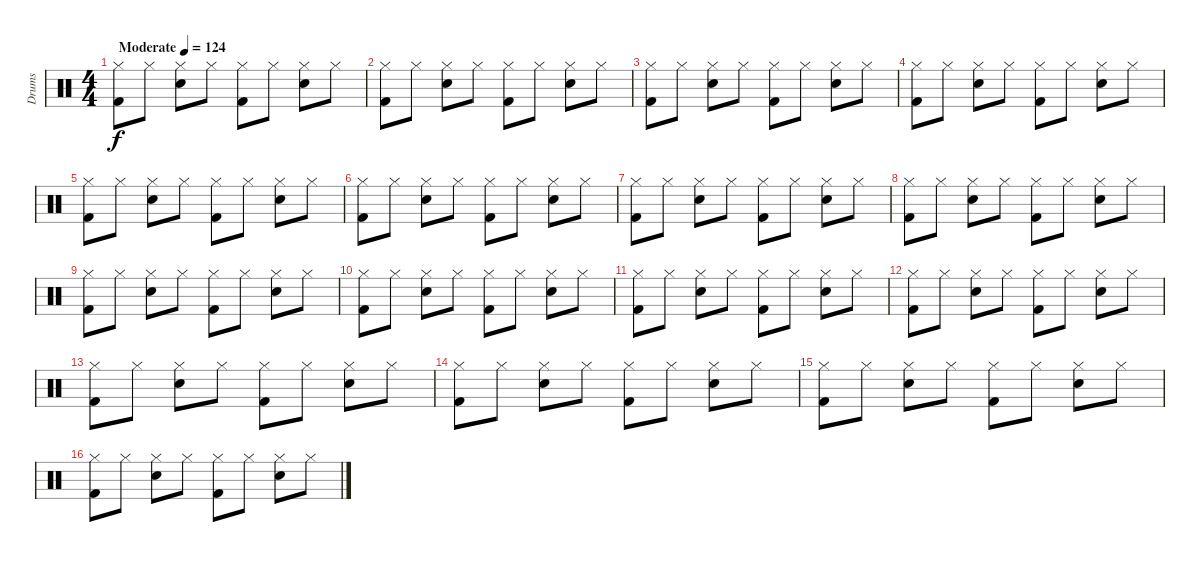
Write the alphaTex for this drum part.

\track ("Drums" "Drums") {instrument percussion}
\staff {score}
\articulation defaults
\ts (4 4)
\tempo (124 "Moderate")
\clef neutral
\ks c
("Kick (hit) 2" "Hi-Hat (closed)").8{dy f} "Hi-Hat (closed)".8 ("Electric Snare (hit)" "Hi-Hat (closed)").8 "Hi-Hat (closed)".8 ("Kick (hit) 2" "Hi-Hat (closed)").8 "Hi-Hat (closed)".8 ("Electric Snare (hit)" "Hi-Hat (closed)").8 "Hi-Hat (closed)".8 |
("Kick (hit) 2" "Hi-Hat (closed)").8 "Hi-Hat (closed)".8 ("Electric Snare (hit)" "Hi-Hat (closed)").8 "Hi-Hat (closed)".8 ("Kick (hit) 2" "Hi-Hat (closed)").8 "Hi-Hat (closed)".8 ("Electric Snare (hit)" "Hi-Hat (closed)").8 "Hi-Hat (closed)".8 |
("Kick (hit) 2" "Hi-Hat (closed)").8 "Hi-Hat (closed)".8 ("Electric Snare (hit)" "Hi-Hat (closed)").8 "Hi-Hat (closed)".8 ("Kick (hit) 2" "Hi-Hat (closed)").8 "Hi-Hat (closed)".8 ("Electric Snare (hit)" "Hi-Hat (closed)").8 "Hi-Hat (closed)".8 |
("Kick (hit) 2" "Hi-Hat (closed)").8 "Hi-Hat (closed)".8 ("Electric Snare (hit)" "Hi-Hat (closed)").8 "Hi-Hat (closed)".8 ("Kick (hit) 2" "Hi-Hat (closed)").8 "Hi-Hat (closed)".8 ("Electric Snare (hit)" "Hi-Hat (closed)").8 "Hi-Hat (closed)".8 |
("Kick (hit) 2" "Hi-Hat (closed)").8 "Hi-Hat (closed)".8 ("Electric Snare (hit)" "Hi-Hat (closed)").8 "Hi-Hat (closed)".8 ("Kick (hit) 2" "Hi-Hat (closed)").8 "Hi-Hat (closed)".8 ("Electric Snare (hit)" "Hi-Hat (closed)").8 "Hi-Hat (closed)".8 |
("Kick (hit) 2" "Hi-Hat (closed)").8 "Hi-Hat (closed)".8 ("Electric Snare (hit)" "Hi-Hat (closed)").8 "Hi-Hat (closed)".8 ("Kick (hit) 2" "Hi-Hat (closed)").8 "Hi-Hat (closed)".8 ("Electric Snare (hit)" "Hi-Hat (closed)").8 "Hi-Hat (closed)".8 |
("Kick (hit) 2" "Hi-Hat (closed)").8 "Hi-Hat (closed)".8 ("Electric Snare (hit)" "Hi-Hat (closed)").8 "Hi-Hat (closed)".8 ("Kick (hit) 2" "Hi-Hat (closed)").8 "Hi-Hat (closed)".8 ("Electric Snare (hit)" "Hi-Hat (closed)").8 "Hi-Hat (closed)".8 |
("Kick (hit) 2" "Hi-Hat (closed)").8 "Hi-Hat (closed)".8 ("Electric Snare (hit)" "Hi-Hat (closed)").8 "Hi-Hat (closed)".8 ("Kick (hit) 2" "Hi-Hat (closed)").8 "Hi-Hat (closed)".8 ("Electric Snare (hit)" "Hi-Hat (closed)").8 "Hi-Hat (closed)".8 |
("Kick (hit) 2" "Hi-Hat (closed)").8 "Hi-Hat (closed)".8 ("Electric Snare (hit)" "Hi-Hat (closed)").8 "Hi-Hat (closed)".8 ("Kick (hit) 2" "Hi-Hat (closed)").8 "Hi-Hat (closed)".8 ("Electric Snare (hit)" "Hi-Hat (closed)").8 "Hi-Hat (closed)".8 |
("Kick (hit) 2" "Hi-Hat (closed)").8 "Hi-Hat (closed)".8 ("Electric Snare (hit)" "Hi-Hat (closed)").8 "Hi-Hat (closed)".8 ("Kick (hit) 2" "Hi-Hat (closed)").8 "Hi-Hat (closed)".8 ("Electric Snare (hit)" "Hi-Hat (closed)").8 "Hi-Hat (closed)".8 |
("Kick (hit) 2" "Hi-Hat (closed)").8 "Hi-Hat (closed)".8 ("Electric Snare (hit)" "Hi-Hat (closed)").8 "Hi-Hat (closed)".8 ("Kick (hit) 2" "Hi-Hat (closed)").8 "Hi-Hat (closed)".8 ("Electric Snare (hit)" "Hi-Hat (closed)").8 "Hi-Hat (closed)".8 |
("Kick (hit) 2" "Hi-Hat (closed)").8 "Hi-Hat (closed)".8 ("Electric Snare (hit)" "Hi-Hat (closed)").8 "Hi-Hat (closed)".8 ("Kick (hit) 2" "Hi-Hat (closed)").8 "Hi-Hat (closed)".8 ("Electric Snare (hit)" "Hi-Hat (closed)").8 "Hi-Hat (closed)".8 |
("Kick (hit) 2" "Hi-Hat (closed)").8 "Hi-Hat (closed)".8 ("Electric Snare (hit)" "Hi-Hat (closed)").8 "Hi-Hat (closed)".8 ("Kick (hit) 2" "Hi-Hat (closed)").8 "Hi-Hat (closed)".8 ("Electric Snare (hit)" "Hi-Hat (closed)").8 "Hi-Hat (closed)".8 |
("Kick (hit) 2" "Hi-Hat (closed)").8 "Hi-Hat (closed)".8 ("Electric Snare (hit)" "Hi-Hat (closed)").8 "Hi-Hat (closed)".8 ("Kick (hit) 2" "Hi-Hat (closed)").8 "Hi-Hat (closed)".8 ("Electric Snare (hit)" "Hi-Hat (closed)").8 "Hi-Hat (closed)".8 |
("Kick (hit) 2" "Hi-Hat (closed)").8 "Hi-Hat (closed)".8 ("Electric Snare (hit)" "Hi-Hat (closed)").8 "Hi-Hat (closed)".8 ("Kick (hit) 2" "Hi-Hat (closed)").8 "Hi-Hat (closed)".8 ("Electric Snare (hit)" "Hi-Hat (closed)").8 "Hi-Hat (closed)".8 |
("Kick (hit) 2" "Hi-Hat (closed)").8 "Hi-Hat (closed)".8 ("Electric Snare (hit)" "Hi-Hat (closed)").8 "Hi-Hat (closed)".8 ("Kick (hit) 2" "Hi-Hat (closed)").8 "Hi-Hat (closed)".8 ("Electric Snare (hit)" "Hi-Hat (closed)").8 "Hi-Hat (closed)".8
